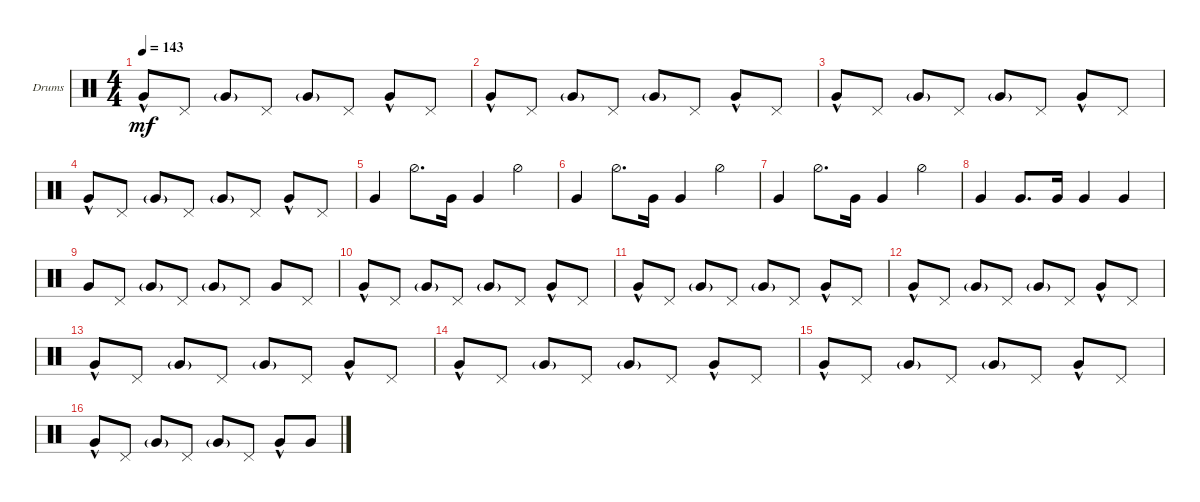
\defaultSystemsLayout 4
\bracketExtendMode groupsimilarinstruments
\firstSystemTrackNameOrientation horizontal
\otherSystemsTrackNameOrientation horizontal
\track ("Drumkit" "Drums") {instrument percussion}
\staff {score}
\articulation defaults
\ts (4 4)
\tempo 143
\clef neutral
\ks c "Very Low Tom (hit)"{hac}.8{dy mf} "Pedal Hi-Hat (hit)".8 "Very Low Tom (hit)"{g}.8 "Pedal Hi-Hat (hit)".8 "Very Low Tom (hit)"{g}.8 "Pedal Hi-Hat (hit)".8 "Very Low Tom (hit)"{hac}.8 "Pedal Hi-Hat (hit)".8
|
"Very Low Tom (hit)"{hac}.8 "Pedal Hi-Hat (hit)".8 "Very Low Tom (hit)"{g}.8 "Pedal Hi-Hat (hit)".8 "Very Low Tom (hit)"{g}.8 "Pedal Hi-Hat (hit)".8 "Very Low Tom (hit)"{hac}.8 "Pedal Hi-Hat (hit)".8 |
"Very Low Tom (hit)"{hac}.8 "Pedal Hi-Hat (hit)".8 "Very Low Tom (hit)"{g}.8 "Pedal Hi-Hat (hit)".8 "Very Low Tom (hit)"{g}.8 "Pedal Hi-Hat (hit)".8 "Very Low Tom (hit)"{hac}.8 "Pedal Hi-Hat (hit)".8 |
"Very Low Tom (hit)"{hac}.8 "Pedal Hi-Hat (hit)".8 "Very Low Tom (hit)"{g}.8 "Pedal Hi-Hat (hit)".8 "Very Low Tom (hit)"{g}.8 "Pedal Hi-Hat (hit)".8 "Very Low Tom (hit)"{hac}.8 "Pedal Hi-Hat (hit)".8 |
"Very Low Tom (hit)".4 "Hi-Hat (half)".8{d} "Very Low Tom (hit)".16 "Very Low Tom (hit)".4 "Hi-Hat (half)".4 |
"Very Low Tom (hit)".4 "Hi-Hat (half)".8{d} "Very Low Tom (hit)".16 "Very Low Tom (hit)".4 "Hi-Hat (half)".4 |
"Very Low Tom (hit)".4 "Hi-Hat (half)".8{d} "Very Low Tom (hit)".16 "Very Low Tom (hit)".4 "Hi-Hat (half)".4 |
"Very Low Tom (hit)".4 "Very Low Tom (hit)".8{d} "Very Low Tom (hit)".16 "Very Low Tom (hit)".4 "Very Low Tom (hit)".4 |
"Very Low Tom (hit)".8 "Pedal Hi-Hat (hit)".8 "Very Low Tom (hit)"{g}.8 "Pedal Hi-Hat (hit)".8 "Very Low Tom (hit)"{g}.8 "Pedal Hi-Hat (hit)".8 "Very Low Tom (hit)".8 "Pedal Hi-Hat (hit)".8 |
"Very Low Tom (hit)"{hac}.8 "Pedal Hi-Hat (hit)".8 "Very Low Tom (hit)"{g}.8 "Pedal Hi-Hat (hit)".8 "Very Low Tom (hit)"{g}.8 "Pedal Hi-Hat (hit)".8 "Very Low Tom (hit)"{hac}.8 "Pedal Hi-Hat (hit)".8 |
"Very Low Tom (hit)"{hac}.8 "Pedal Hi-Hat (hit)".8 "Very Low Tom (hit)"{g}.8 "Pedal Hi-Hat (hit)".8 "Very Low Tom (hit)"{g}.8 "Pedal Hi-Hat (hit)".8 "Very Low Tom (hit)"{hac}.8 "Pedal Hi-Hat (hit)".8 |
"Very Low Tom (hit)"{hac}.8 "Pedal Hi-Hat (hit)".8 "Very Low Tom (hit)"{g}.8 "Pedal Hi-Hat (hit)".8 "Very Low Tom (hit)"{g}.8 "Pedal Hi-Hat (hit)".8 "Very Low Tom (hit)"{hac}.8 "Pedal Hi-Hat (hit)".8 |
"Very Low Tom (hit)"{hac}.8 "Pedal Hi-Hat (hit)".8 "Very Low Tom (hit)"{g}.8 "Pedal Hi-Hat (hit)".8 "Very Low Tom (hit)"{g}.8 "Pedal Hi-Hat (hit)".8 "Very Low Tom (hit)"{hac}.8 "Pedal Hi-Hat (hit)".8 |
"Very Low Tom (hit)"{hac}.8 "Pedal Hi-Hat (hit)".8 "Very Low Tom (hit)"{g}.8 "Pedal Hi-Hat (hit)".8 "Very Low Tom (hit)"{g}.8 "Pedal Hi-Hat (hit)".8 "Very Low Tom (hit)"{hac}.8 "Pedal Hi-Hat (hit)".8 |
"Very Low Tom (hit)"{hac}.8 "Pedal Hi-Hat (hit)".8 "Very Low Tom (hit)"{g}.8 "Pedal Hi-Hat (hit)".8 "Very Low Tom (hit)"{g}.8 "Pedal Hi-Hat (hit)".8 "Very Low Tom (hit)"{hac}.8 "Pedal Hi-Hat (hit)".8 |
"Very Low Tom (hit)"{hac}.8 "Pedal Hi-Hat (hit)".8 "Very Low Tom (hit)"{g}.8 "Pedal Hi-Hat (hit)".8 "Very Low Tom (hit)"{g}.8 "Pedal Hi-Hat (hit)".8 "Very Low Tom (hit)"{hac}.8 "Very Low Tom (hit)".8
